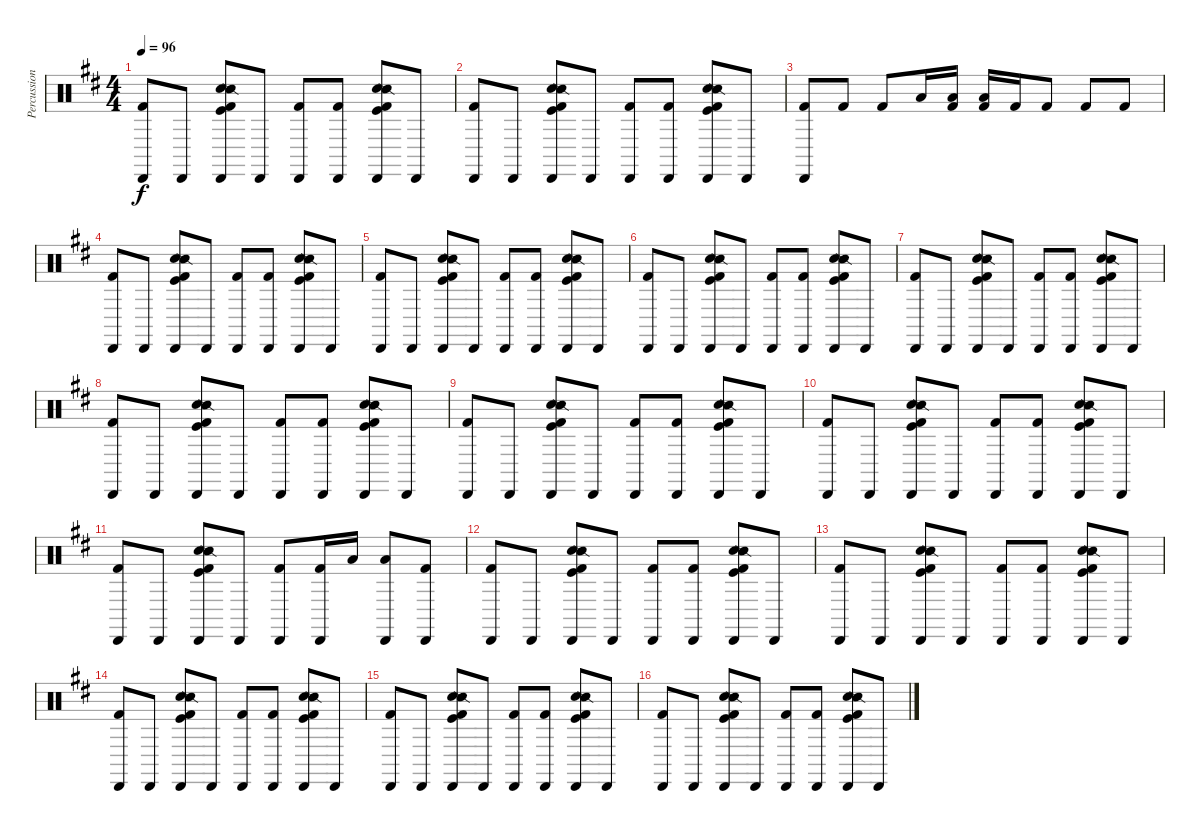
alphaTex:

\track ("Percussion" "Percussion") {instrument percussion}
\staff {score}
\articulation defaults
\ts (4 4)
\tempo 96
\clef neutral
\ks bminor
("Kick (hit) 2" "Cabasa (hit)").8{dy f} "Cabasa (hit)".8 ("Hand Clap (hit)" "Snare (side stick) 2" "Kick (hit) 2" "Kick (hit)" "Cabasa (hit)").8 "Cabasa (hit)".8 ("Kick (hit) 2" "Cabasa (hit)").8 ("Kick (hit) 2" "Cabasa (hit)").8 ("Hand Clap (hit)" "Snare (side stick) 2" "Kick (hit) 2" "Kick (hit)" "Cabasa (hit)").8 "Cabasa (hit)".8 |
("Kick (hit) 2" "Cabasa (hit)").8 "Cabasa (hit)".8 ("Hand Clap (hit)" "Snare (side stick) 2" "Kick (hit) 2" "Kick (hit)" "Cabasa (hit)").8 "Cabasa (hit)".8 ("Kick (hit) 2" "Cabasa (hit)").8 ("Kick (hit) 2" "Cabasa (hit)").8 ("Hand Clap (hit)" "Snare (side stick) 2" "Kick (hit) 2" "Kick (hit)" "Cabasa (hit)").8 "Cabasa (hit)".8 |
("Kick (hit) 2" "Cabasa (hit)").8 "Kick (hit) 2".8 "Kick (hit) 2".8 "Low Floor Tom (hit)".16 ("Kick (hit) 2" "Low Floor Tom (hit)").16 ("Kick (hit) 2" "Low Floor Tom (hit)").16 "Kick (hit) 2".16 "Kick (hit) 2".8 "Kick (hit) 2".8 "Kick (hit) 2".8 |
("Kick (hit) 2" "Cabasa (hit)").8 "Cabasa (hit)".8 ("Hand Clap (hit)" "Snare (side stick) 2" "Kick (hit) 2" "Kick (hit)" "Cabasa (hit)").8 "Cabasa (hit)".8 ("Kick (hit) 2" "Cabasa (hit)").8 ("Kick (hit) 2" "Cabasa (hit)").8 ("Hand Clap (hit)" "Snare (side stick) 2" "Kick (hit) 2" "Kick (hit)" "Cabasa (hit)").8 "Cabasa (hit)".8 |
("Kick (hit) 2" "Cabasa (hit)").8 "Cabasa (hit)".8 ("Hand Clap (hit)" "Snare (side stick) 2" "Kick (hit) 2" "Kick (hit)" "Cabasa (hit)").8 "Cabasa (hit)".8 ("Kick (hit) 2" "Cabasa (hit)").8 ("Kick (hit) 2" "Cabasa (hit)").8 ("Hand Clap (hit)" "Snare (side stick) 2" "Kick (hit) 2" "Kick (hit)" "Cabasa (hit)").8 "Cabasa (hit)".8 |
("Kick (hit) 2" "Cabasa (hit)").8 "Cabasa (hit)".8 ("Hand Clap (hit)" "Snare (side stick) 2" "Kick (hit) 2" "Kick (hit)" "Cabasa (hit)").8 "Cabasa (hit)".8 ("Kick (hit) 2" "Cabasa (hit)").8 ("Kick (hit) 2" "Cabasa (hit)").8 ("Hand Clap (hit)" "Snare (side stick) 2" "Kick (hit) 2" "Kick (hit)" "Cabasa (hit)").8 "Cabasa (hit)".8 |
("Kick (hit) 2" "Cabasa (hit)").8 "Cabasa (hit)".8 ("Hand Clap (hit)" "Snare (side stick) 2" "Kick (hit) 2" "Kick (hit)" "Cabasa (hit)").8 "Cabasa (hit)".8 ("Kick (hit) 2" "Cabasa (hit)").8 ("Kick (hit) 2" "Cabasa (hit)").8 ("Hand Clap (hit)" "Snare (side stick) 2" "Kick (hit) 2" "Kick (hit)" "Cabasa (hit)").8 "Cabasa (hit)".8 |
("Kick (hit) 2" "Cabasa (hit)").8 "Cabasa (hit)".8 ("Hand Clap (hit)" "Snare (side stick) 2" "Kick (hit) 2" "Kick (hit)" "Cabasa (hit)").8 "Cabasa (hit)".8 ("Kick (hit) 2" "Cabasa (hit)").8 ("Kick (hit) 2" "Cabasa (hit)").8 ("Hand Clap (hit)" "Snare (side stick) 2" "Kick (hit) 2" "Kick (hit)" "Cabasa (hit)").8 "Cabasa (hit)".8 |
("Kick (hit) 2" "Cabasa (hit)").8 "Cabasa (hit)".8 ("Hand Clap (hit)" "Snare (side stick) 2" "Kick (hit) 2" "Kick (hit)" "Cabasa (hit)").8 "Cabasa (hit)".8 ("Kick (hit) 2" "Cabasa (hit)").8 ("Kick (hit) 2" "Cabasa (hit)").8 ("Hand Clap (hit)" "Snare (side stick) 2" "Kick (hit) 2" "Kick (hit)" "Cabasa (hit)").8 "Cabasa (hit)".8 |
("Kick (hit) 2" "Cabasa (hit)").8 "Cabasa (hit)".8 ("Hand Clap (hit)" "Snare (side stick) 2" "Kick (hit) 2" "Kick (hit)" "Cabasa (hit)").8 "Cabasa (hit)".8 ("Kick (hit) 2" "Cabasa (hit)").8 ("Kick (hit) 2" "Cabasa (hit)").8 ("Hand Clap (hit)" "Snare (side stick) 2" "Kick (hit) 2" "Kick (hit)" "Cabasa (hit)").8 "Cabasa (hit)".8 |
("Kick (hit) 2" "Cabasa (hit)").8 "Cabasa (hit)".8 ("Hand Clap (hit)" "Snare (side stick) 2" "Kick (hit) 2" "Kick (hit)" "Cabasa (hit)").8 "Cabasa (hit)".8 ("Kick (hit) 2" "Cabasa (hit)").8 ("Kick (hit) 2" "Cabasa (hit)").16 "Low Floor Tom (hit)".16 ("Low Floor Tom (hit)" "Cabasa (hit)").8 ("Kick (hit) 2" "Cabasa (hit)").8 |
("Kick (hit) 2" "Cabasa (hit)").8 "Cabasa (hit)".8 ("Hand Clap (hit)" "Snare (side stick) 2" "Kick (hit) 2" "Kick (hit)" "Cabasa (hit)").8 "Cabasa (hit)".8 ("Kick (hit) 2" "Cabasa (hit)").8 ("Kick (hit) 2" "Cabasa (hit)").8 ("Hand Clap (hit)" "Snare (side stick) 2" "Kick (hit) 2" "Kick (hit)" "Cabasa (hit)").8 "Cabasa (hit)".8 |
("Kick (hit) 2" "Cabasa (hit)").8 "Cabasa (hit)".8 ("Hand Clap (hit)" "Snare (side stick) 2" "Kick (hit) 2" "Kick (hit)" "Cabasa (hit)").8 "Cabasa (hit)".8 ("Kick (hit) 2" "Cabasa (hit)").8 ("Kick (hit) 2" "Cabasa (hit)").8 ("Hand Clap (hit)" "Snare (side stick) 2" "Kick (hit) 2" "Kick (hit)" "Cabasa (hit)").8 "Cabasa (hit)".8 |
("Kick (hit) 2" "Cabasa (hit)").8 "Cabasa (hit)".8 ("Hand Clap (hit)" "Snare (side stick) 2" "Kick (hit) 2" "Kick (hit)" "Cabasa (hit)").8 "Cabasa (hit)".8 ("Kick (hit) 2" "Cabasa (hit)").8 ("Kick (hit) 2" "Cabasa (hit)").8 ("Hand Clap (hit)" "Snare (side stick) 2" "Kick (hit) 2" "Kick (hit)" "Cabasa (hit)").8 "Cabasa (hit)".8 |
("Kick (hit) 2" "Cabasa (hit)").8 "Cabasa (hit)".8 ("Hand Clap (hit)" "Snare (side stick) 2" "Kick (hit) 2" "Kick (hit)" "Cabasa (hit)").8 "Cabasa (hit)".8 ("Kick (hit) 2" "Cabasa (hit)").8 ("Kick (hit) 2" "Cabasa (hit)").8 ("Hand Clap (hit)" "Snare (side stick) 2" "Kick (hit) 2" "Kick (hit)" "Cabasa (hit)").8 "Cabasa (hit)".8 |
("Kick (hit) 2" "Cabasa (hit)").8 "Cabasa (hit)".8 ("Hand Clap (hit)" "Snare (side stick) 2" "Kick (hit) 2" "Kick (hit)" "Cabasa (hit)").8 "Cabasa (hit)".8 ("Kick (hit) 2" "Cabasa (hit)").8 ("Kick (hit) 2" "Cabasa (hit)").8 ("Hand Clap (hit)" "Snare (side stick) 2" "Kick (hit) 2" "Kick (hit)" "Cabasa (hit)").8 "Cabasa (hit)".8
